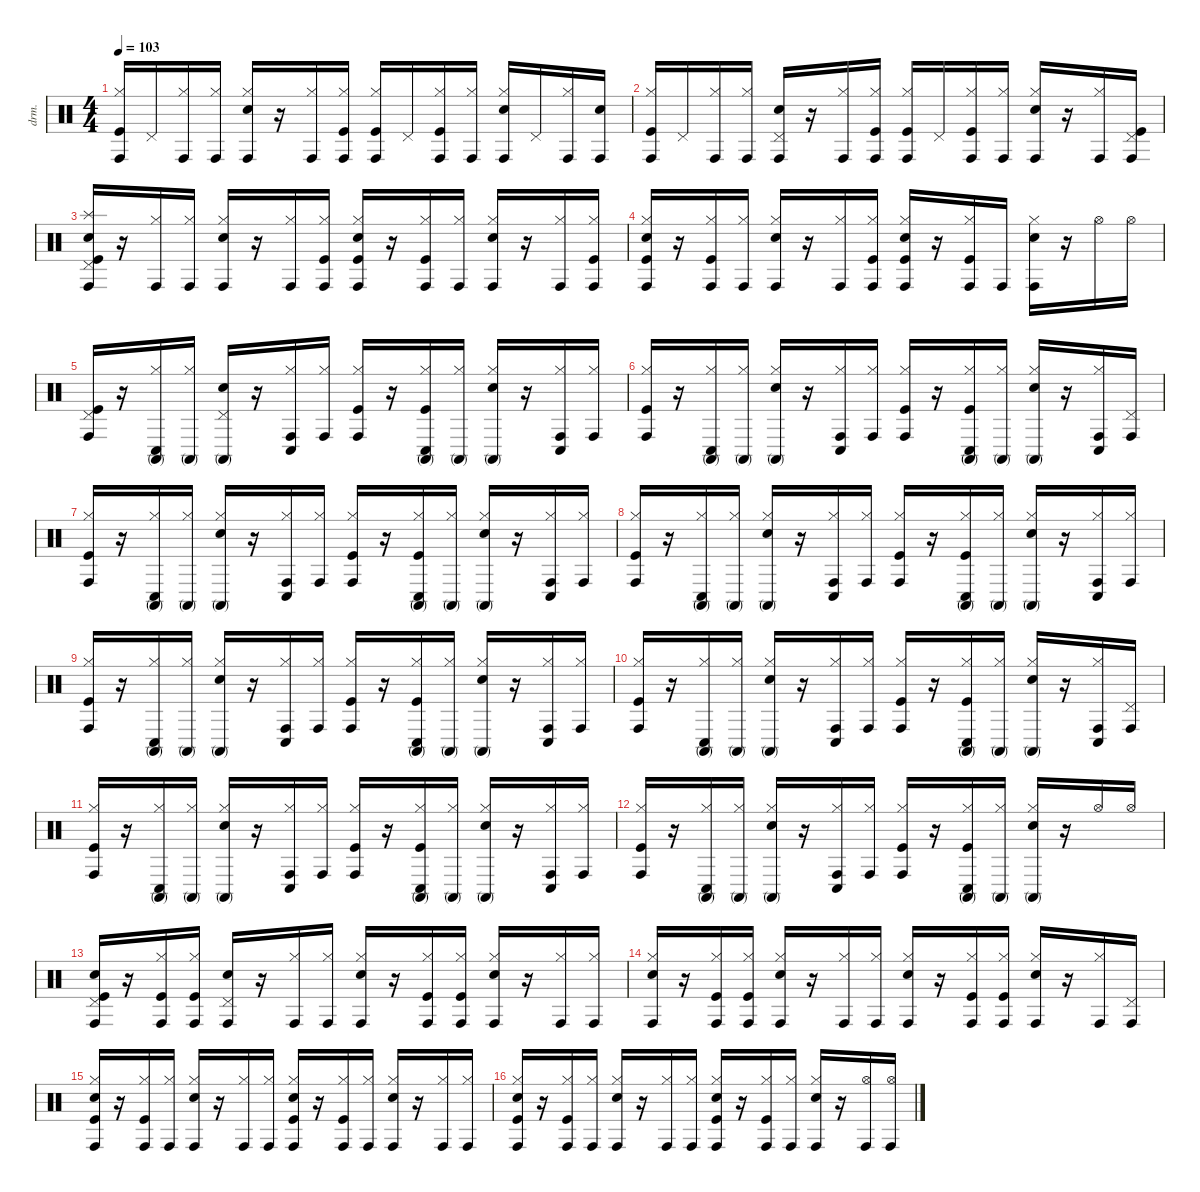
\defaultSystemsLayout 4
\hideDynamics
\bracketExtendMode nobrackets
\otherSystemsTrackNameOrientation horizontal
\track ("drums" "drm.") {instrument percussion}
\staff {score}
\articulation defaults
\ts (4 4)
\tempo 103
\clef neutral
\ks c
("Kick (hit)" "Hi-Hat (closed)" "Conga high (hit)").16{dy f} "Pedal Hi-Hat (hit)".16 ("Hi-Hat (closed)" "Conga high (hit)").16 ("Hi-Hat (closed)" "Conga high (hit)").16 ("Snare (hit) 2" "Hi-Hat (closed)" "Conga high (hit)").16 r.16 ("Hi-Hat (closed)" "Conga high (hit)").16 ("Kick (hit)" "Hi-Hat (closed)" "Conga high (hit)").16 ("Kick (hit)" "Hi-Hat (closed)" "Conga high (hit)").16 "Pedal Hi-Hat (hit)".16 ("Kick (hit)" "Hi-Hat (closed)" "Conga high (hit)").16 ("Hi-Hat (closed)" "Conga high (hit)").16 ("Snare (hit) 2" "Hi-Hat (closed)" "Conga high (hit)").16 "Pedal Hi-Hat (hit)".16 ("Hi-Hat (closed)" "Conga high (hit)").16 ("Snare (hit) 2" "Conga high (hit)").16 |
("Kick (hit)" "Hi-Hat (closed)" "Conga high (hit)").16 "Pedal Hi-Hat (hit)".16 ("Hi-Hat (closed)" "Conga high (hit)").16 ("Hi-Hat (closed)" "Conga high (hit)").16 ("Snare (hit) 2" "Pedal Hi-Hat (hit)" "Conga high (hit)").16 r.16 ("Hi-Hat (closed)" "Conga high (hit)").16 ("Kick (hit)" "Hi-Hat (closed)" "Conga high (hit)").16 ("Kick (hit)" "Hi-Hat (closed)" "Conga high (hit)").16 "Pedal Hi-Hat (hit)".16 ("Kick (hit)" "Hi-Hat (closed)" "Conga high (hit)").16 ("Hi-Hat (closed)" "Conga high (hit)").16 ("Snare (hit) 2" "Hi-Hat (closed)" "Conga high (hit)").16 r.16 ("Hi-Hat (closed)" "Conga high (hit)").16 ("Kick (hit)" "Pedal Hi-Hat (hit)" "Conga high (hit)").16 |
("Kick (hit)" "Snare (hit) 2" "Pedal Hi-Hat (hit)" "Conga high (hit)" "Splash (hit)").16 r.16 ("Hi-Hat (closed)" "Conga high (hit)").16 ("Hi-Hat (closed)" "Conga high (hit)").16 ("Snare (hit) 2" "Hi-Hat (closed)" "Conga high (hit)").16 r.16 ("Hi-Hat (closed)" "Conga high (hit)").16 ("Kick (hit)" "Hi-Hat (closed)" "Conga high (hit)").16 ("Kick (hit)" "Snare (hit) 2" "Hi-Hat (closed)" "Conga high (hit)").16 r.16 ("Kick (hit)" "Hi-Hat (closed)" "Conga high (hit)").16 ("Hi-Hat (closed)" "Conga high (hit)").16 ("Snare (hit) 2" "Hi-Hat (closed)" "Conga high (hit)").16 r.16 ("Hi-Hat (closed)" "Conga high (hit)").16 ("Kick (hit)" "Hi-Hat (closed)" "Conga high (hit)").16 |
("Kick (hit)" "Snare (hit) 2" "Hi-Hat (closed)" "Conga high (hit)").16 r.16 ("Kick (hit)" "Hi-Hat (closed)" "Conga high (hit)").16 ("Hi-Hat (closed)" "Conga high (hit)").16 ("Snare (hit) 2" "Hi-Hat (closed)" "Conga high (hit)").16 r.16 ("Hi-Hat (closed)" "Conga high (hit)").16 ("Kick (hit)" "Hi-Hat (closed)" "Conga high (hit)").16 ("Kick (hit)" "Snare (hit) 2" "Hi-Hat (closed)" "Conga high (hit)").16 r.16 ("Kick (hit)" "Hi-Hat (closed)" "Conga high (hit)").16 "Conga high (hit)".16 ("Snare (hit) 2" "Hi-Hat (closed)" "Conga high (hit)").16 r.16 "Hi-Hat (open)".16 "Hi-Hat (open)".16 |
("Kick (hit)" "Pedal Hi-Hat (hit)" "Conga high (hit)").16 r.16 ("Conga high (mute)" "Conga low (hit)" "Hi-Hat (closed)").16 ("Conga high (mute)" "Hi-Hat (closed)").16 ("Conga high (mute)" "Snare (hit) 2" "Pedal Hi-Hat (hit)").16 r.16 ("Hi-Hat (closed)" "Conga low (hit)" "Conga high (hit)").16 ("Hi-Hat (closed)" "Conga high (hit)").16 ("Kick (hit)" "Hi-Hat (closed)" "Conga high (hit)").16 r.16 ("Kick (hit)" "Conga low (hit)" "Conga high (mute)" "Hi-Hat (closed)").16 ("Conga high (mute)" "Hi-Hat (closed)").16 ("Conga high (mute)" "Snare (hit) 2" "Hi-Hat (closed)").16 r.16 ("Hi-Hat (closed)" "Conga low (hit)" "Conga high (hit)").16 ("Hi-Hat (closed)" "Conga high (hit)").16 |
("Kick (hit)" "Hi-Hat (closed)" "Conga high (hit)").16 r.16 ("Conga low (hit)" "Conga high (mute)" "Hi-Hat (closed)").16 ("Conga high (mute)" "Hi-Hat (closed)").16 ("Conga high (mute)" "Snare (hit) 2" "Hi-Hat (closed)").16 r.16 ("Hi-Hat (closed)" "Conga low (hit)" "Conga high (hit)").16 ("Hi-Hat (closed)" "Conga high (hit)").16 ("Kick (hit)" "Hi-Hat (closed)" "Conga high (hit)").16 r.16 ("Kick (hit)" "Conga low (hit)" "Conga high (mute)" "Hi-Hat (closed)").16 ("Conga high (mute)" "Hi-Hat (closed)").16 ("Conga high (mute)" "Snare (hit) 2" "Hi-Hat (closed)").16 r.16 ("Hi-Hat (closed)" "Conga low (hit)" "Conga high (hit)").16 ("Pedal Hi-Hat (hit)" "Conga high (hit)").16 |
("Kick (hit)" "Hi-Hat (closed)" "Conga high (hit)").16 r.16 ("Conga low (hit)" "Conga high (mute)" "Hi-Hat (closed)").16 ("Conga high (mute)" "Hi-Hat (closed)").16 ("Conga high (mute)" "Snare (hit) 2" "Hi-Hat (closed)").16 r.16 ("Hi-Hat (closed)" "Conga low (hit)" "Conga high (hit)").16 ("Hi-Hat (closed)" "Conga high (hit)").16 ("Kick (hit)" "Hi-Hat (closed)" "Conga high (hit)").16 r.16 ("Kick (hit)" "Conga low (hit)" "Conga high (mute)" "Hi-Hat (closed)").16 ("Conga high (mute)" "Hi-Hat (closed)").16 ("Conga high (mute)" "Snare (hit) 2" "Hi-Hat (closed)").16 r.16 ("Hi-Hat (closed)" "Conga low (hit)" "Conga high (hit)").16 ("Hi-Hat (closed)" "Conga high (hit)").16 |
("Kick (hit)" "Hi-Hat (closed)" "Conga high (hit)").16 r.16 ("Conga low (hit)" "Conga high (mute)" "Hi-Hat (closed)").16 ("Conga high (mute)" "Hi-Hat (closed)").16 ("Conga high (mute)" "Snare (hit) 2" "Hi-Hat (closed)").16 r.16 ("Hi-Hat (closed)" "Conga low (hit)" "Conga high (hit)").16 ("Hi-Hat (closed)" "Conga high (hit)").16 ("Kick (hit)" "Hi-Hat (closed)" "Conga high (hit)").16 r.16 ("Kick (hit)" "Conga low (hit)" "Conga high (mute)" "Hi-Hat (closed)").16 ("Conga high (mute)" "Hi-Hat (closed)").16 ("Conga high (mute)" "Snare (hit) 2" "Hi-Hat (closed)").16 r.16 ("Hi-Hat (closed)" "Conga low (hit)" "Conga high (hit)").16 ("Hi-Hat (closed)" "Conga high (hit)").16 |
("Kick (hit)" "Hi-Hat (closed)" "Conga high (hit)").16 r.16 ("Conga low (hit)" "Conga high (mute)" "Hi-Hat (closed)").16 ("Conga high (mute)" "Hi-Hat (closed)").16 ("Conga high (mute)" "Snare (hit) 2" "Hi-Hat (closed)").16 r.16 ("Hi-Hat (closed)" "Conga low (hit)" "Conga high (hit)").16 ("Hi-Hat (closed)" "Conga high (hit)").16 ("Kick (hit)" "Hi-Hat (closed)" "Conga high (hit)").16 r.16 ("Kick (hit)" "Conga low (hit)" "Conga high (mute)" "Hi-Hat (closed)").16 ("Conga high (mute)" "Hi-Hat (closed)").16 ("Conga high (mute)" "Snare (hit) 2" "Hi-Hat (closed)").16 r.16 ("Hi-Hat (closed)" "Conga low (hit)" "Conga high (hit)").16 ("Hi-Hat (closed)" "Conga high (hit)").16 |
("Kick (hit)" "Hi-Hat (closed)" "Conga high (hit)").16 r.16 ("Conga low (hit)" "Conga high (mute)" "Hi-Hat (closed)").16 ("Conga high (mute)" "Hi-Hat (closed)").16 ("Conga high (mute)" "Snare (hit) 2" "Hi-Hat (closed)").16 r.16 ("Hi-Hat (closed)" "Conga low (hit)" "Conga high (hit)").16 ("Hi-Hat (closed)" "Conga high (hit)").16 ("Kick (hit)" "Hi-Hat (closed)" "Conga high (hit)").16 r.16 ("Kick (hit)" "Conga low (hit)" "Conga high (mute)" "Hi-Hat (closed)").16 ("Conga high (mute)" "Hi-Hat (closed)").16 ("Conga high (mute)" "Snare (hit) 2" "Hi-Hat (closed)").16 r.16 ("Hi-Hat (closed)" "Conga low (hit)" "Conga high (hit)").16 ("Pedal Hi-Hat (hit)" "Conga high (hit)").16 |
("Kick (hit)" "Hi-Hat (closed)" "Conga high (hit)").16 r.16 ("Conga low (hit)" "Conga high (mute)" "Hi-Hat (closed)").16 ("Conga high (mute)" "Hi-Hat (closed)").16 ("Conga high (mute)" "Snare (hit) 2" "Hi-Hat (closed)").16 r.16 ("Hi-Hat (closed)" "Conga low (hit)" "Conga high (hit)").16 ("Hi-Hat (closed)" "Conga high (hit)").16 ("Kick (hit)" "Hi-Hat (closed)" "Conga high (hit)").16 r.16 ("Kick (hit)" "Conga low (hit)" "Conga high (mute)" "Hi-Hat (closed)").16 ("Conga high (mute)" "Hi-Hat (closed)").16 ("Conga high (mute)" "Snare (hit) 2" "Hi-Hat (closed)").16 r.16 ("Hi-Hat (closed)" "Conga low (hit)" "Conga high (hit)").16 ("Hi-Hat (closed)" "Conga high (hit)").16 |
("Kick (hit)" "Hi-Hat (closed)" "Conga high (hit)").16 r.16 ("Conga low (hit)" "Conga high (mute)" "Hi-Hat (closed)").16 ("Conga high (mute)" "Hi-Hat (closed)").16 ("Conga high (mute)" "Snare (hit) 2" "Hi-Hat (closed)").16 r.16 ("Conga low (hit)" "Hi-Hat (closed)" "Conga high (hit)").16 ("Hi-Hat (closed)" "Conga high (hit)").16 ("Kick (hit)" "Hi-Hat (closed)" "Conga high (hit)").16 r.16 ("Conga low (hit)" "Conga high (mute)" "Kick (hit)" "Hi-Hat (closed)").16 ("Conga high (mute)" "Hi-Hat (closed)").16 ("Conga high (mute)" "Hi-Hat (closed)" "Snare (hit) 2").16 r.16 "Hi-Hat (open)".16 "Hi-Hat (open)".16 |
("Kick (hit)" "Snare (hit) 2" "Pedal Hi-Hat (hit)" "Conga high (hit)").16 r.16 ("Kick (hit)" "Hi-Hat (closed)" "Conga high (hit)").16 ("Kick (hit)" "Hi-Hat (closed)" "Conga high (hit)").16 ("Snare (hit) 2" "Pedal Hi-Hat (hit)" "Conga high (hit)").16 r.16 ("Hi-Hat (closed)" "Conga high (hit)").16 ("Hi-Hat (closed)" "Conga high (hit)").16 ("Snare (hit) 2" "Hi-Hat (closed)" "Conga high (hit)").16 r.16 ("Kick (hit)" "Hi-Hat (closed)" "Conga high (hit)").16 ("Kick (hit)" "Hi-Hat (closed)" "Conga high (hit)").16 ("Snare (hit) 2" "Hi-Hat (closed)" "Conga high (hit)").16 r.16 ("Hi-Hat (closed)" "Conga high (hit)").16 ("Hi-Hat (closed)" "Conga high (hit)").16 |
("Hi-Hat (closed)" "Conga high (hit)" "Snare (hit) 2").16 r.16 ("Kick (hit)" "Hi-Hat (closed)" "Conga high (hit)").16 ("Kick (hit)" "Hi-Hat (closed)" "Conga high (hit)").16 ("Snare (hit) 2" "Hi-Hat (closed)" "Conga high (hit)").16 r.16 ("Hi-Hat (closed)" "Conga high (hit)").16 ("Hi-Hat (closed)" "Conga high (hit)").16 ("Hi-Hat (closed)" "Conga high (hit)" "Snare (hit) 2").16 r.16 ("Kick (hit)" "Hi-Hat (closed)" "Conga high (hit)").16 ("Kick (hit)" "Hi-Hat (closed)" "Conga high (hit)").16 ("Snare (hit) 2" "Hi-Hat (closed)" "Conga high (hit)").16 r.16 ("Hi-Hat (closed)" "Conga high (hit)").16 ("Pedal Hi-Hat (hit)" "Conga high (hit)").16 |
("Kick (hit)" "Hi-Hat (closed)" "Conga high (hit)" "Snare (hit) 2").16 r.16 ("Kick (hit)" "Hi-Hat (closed)" "Conga high (hit)").16 ("Hi-Hat (closed)" "Conga high (hit)").16 ("Snare (hit) 2" "Hi-Hat (closed)" "Conga high (hit)").16 r.16 ("Hi-Hat (closed)" "Conga high (hit)").16 ("Hi-Hat (closed)" "Conga high (hit)").16 ("Kick (hit)" "Hi-Hat (closed)" "Conga high (hit)" "Snare (hit) 2").16 r.16 ("Kick (hit)" "Hi-Hat (closed)" "Conga high (hit)").16 ("Hi-Hat (closed)" "Conga high (hit)").16 ("Snare (hit) 2" "Hi-Hat (closed)" "Conga high (hit)").16 r.16 ("Hi-Hat (closed)" "Conga high (hit)").16 ("Hi-Hat (closed)" "Conga high (hit)").16 |
("Kick (hit)" "Snare (hit) 2" "Hi-Hat (closed)" "Conga high (hit)").16 r.16 ("Kick (hit)" "Hi-Hat (closed)" "Conga high (hit)").16 ("Hi-Hat (closed)" "Conga high (hit)").16 ("Snare (hit) 2" "Hi-Hat (closed)" "Conga high (hit)").16 r.16 ("Hi-Hat (closed)" "Conga high (hit)").16 ("Hi-Hat (closed)" "Conga high (hit)").16 ("Kick (hit)" "Snare (hit) 2" "Hi-Hat (closed)" "Conga high (hit)").16 r.16 ("Kick (hit)" "Hi-Hat (closed)" "Conga high (hit)").16 ("Hi-Hat (closed)" "Conga high (hit)").16 ("Snare (hit) 2" "Hi-Hat (closed)" "Conga high (hit)").16 r.16 ("Hi-Hat (open)" "Conga high (hit)").16 ("Hi-Hat (open)" "Conga high (hit)").16
